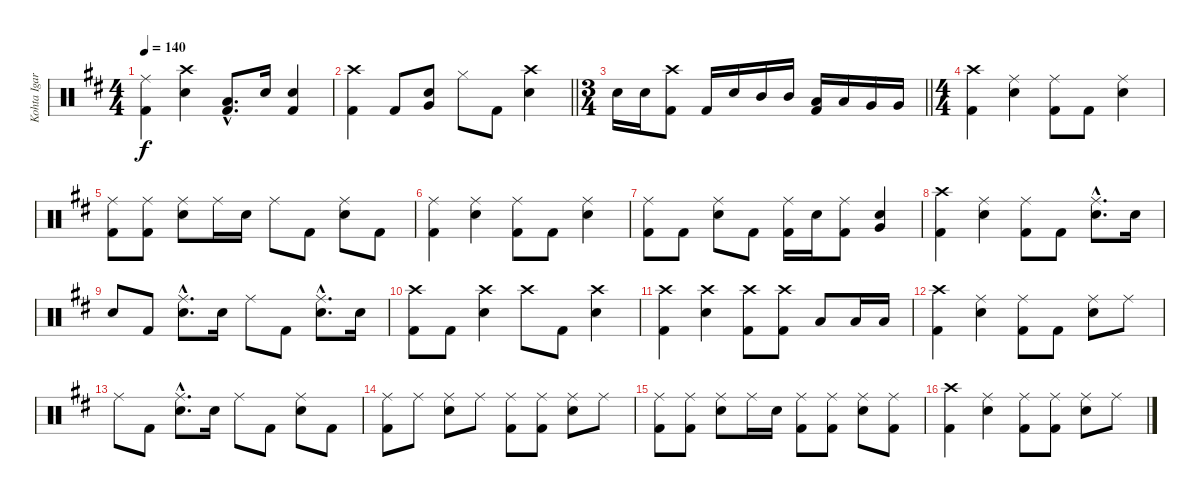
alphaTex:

\track ("Kohta Igarashi" "Kohta Igar") {instrument percussion}
\staff {score}
\articulation defaults
\ts (4 4)
\tempo 140
\clef neutral
\ks d
("Ride (middle)" "Kick (hit) 2").4{dy f} ("Crash high (hit)" "Electric Snare (hit)").4 ("Low Tom (hit)"{hac} "Kick (hit) 2"{hac}).8{d} "Electric Snare (hit)".16 ("Electric Snare (hit)" "Kick (hit) 2").4 |
\barLineRight lightlight
("Crash high (hit)" "Kick (hit) 2").4 "Kick (hit) 2".8 ("Electric Snare (hit)" "Very Low Tom (hit)").8 "Hi-Hat (closed)".8 "Kick (hit) 2".8 ("Crash high (hit)" "Electric Snare (hit)").4 |
\ts (3 4)
\barLineRight lightlight "Electric Snare (hit)".16 "Electric Snare (hit)".16
("Crash high (hit)" "Kick (hit) 2").8 "Kick (hit) 2".16 "Electric Snare (hit)".16 "Mid Tom (hit)".16 "Mid Tom (hit)".16 ("Low Tom (hit)" "Kick (hit) 2").16 "Low Tom (hit)".16 "Very Low Tom (hit)".16 "Very Low Tom (hit)".16 |
\ts (4 4)
("Crash high (hit)" "Kick (hit) 2").4 ("Ride (middle)" "Electric Snare (hit)").4 ("Ride (middle)" "Kick (hit) 2").8 "Kick (hit) 2".8 ("Ride (middle)" "Electric Snare (hit)").4 |
("Ride (middle)" "Kick (hit) 2").8 ("Ride (middle)" "Kick (hit) 2").8 ("Ride (middle)" "Electric Snare (hit)").8 "Ride (middle)".16 "Electric Snare (hit)".16 "Ride (middle)".8 "Kick (hit) 2".8 ("Ride (middle)" "Electric Snare (hit)").8 "Kick (hit) 2".8 |
("Ride (middle)" "Kick (hit) 2").4 ("Ride (middle)" "Electric Snare (hit)").4 ("Ride (middle)" "Kick (hit) 2").8 "Kick (hit) 2".8 ("Ride (middle)" "Electric Snare (hit)").4 |
("Ride (middle)" "Kick (hit) 2").8 "Kick (hit) 2".8 ("Ride (middle)" "Electric Snare (hit)").8 "Kick (hit) 2".8 ("Ride (middle)" "Kick (hit) 2").16 "Electric Snare (hit)".16 ("Ride (middle)" "Kick (hit) 2").8 ("Electric Snare (hit)" "Very Low Tom (hit)").4 |
("Crash high (hit)" "Kick (hit) 2").4 ("Ride (middle)" "Electric Snare (hit)").4 ("Ride (middle)" "Kick (hit) 2").8 "Kick (hit) 2".8 ("Ride (middle)"{hac} "Electric Snare (hit)"{hac}).8{d} "Electric Snare (hit)".16 |
"Electric Snare (hit)".8 "Kick (hit) 2".8 ("Ride (middle)"{hac} "Electric Snare (hit)"{hac}).8{d} "Electric Snare (hit)".16 "Ride (middle)".8 "Kick (hit) 2".8 ("Ride (middle)"{hac} "Electric Snare (hit)"{hac}).8{d} "Electric Snare (hit)".16 |
("Crash high (hit)" "Kick (hit) 2").8 "Kick (hit) 2".8 ("Crash high (hit)" "Electric Snare (hit)").4 "Crash high (hit)".8 "Kick (hit) 2".8 ("Crash high (hit)" "Electric Snare (hit)").4 |
("Crash high (hit)" "Kick (hit) 2").4 ("Crash high (hit)" "Electric Snare (hit)").4 ("Crash high (hit)" "Kick (hit) 2").8 ("Crash high (hit)" "Kick (hit) 2").8 "Low Floor Tom (hit)".8 "Low Floor Tom (hit)".16 "Low Floor Tom (hit)".16 |
("Crash high (hit)" "Kick (hit) 2").4 ("Ride (middle)" "Electric Snare (hit)").4 ("Ride (middle)" "Kick (hit) 2").8 "Kick (hit) 2".8 ("Ride (middle)" "Electric Snare (hit)").8 "Ride (middle)".8 |
"Ride (middle)".8 "Kick (hit) 2".8 ("Ride (middle)"{hac} "Electric Snare (hit)"{hac}).8{d} "Electric Snare (hit)".16 "Ride (middle)".8 "Kick (hit) 2".8 ("Ride (middle)" "Electric Snare (hit)").8 "Kick (hit) 2".8 |
("Ride (middle)" "Kick (hit) 2").8 "Ride (middle)".8 ("Ride (middle)" "Electric Snare (hit)").8 "Ride (middle)".8 ("Ride (middle)" "Kick (hit) 2").8 ("Ride (middle)" "Kick (hit) 2").8 ("Ride (middle)" "Electric Snare (hit)").8 "Ride (middle)".8 |
("Ride (middle)" "Kick (hit) 2").8 ("Ride (middle)" "Kick (hit) 2").8 ("Ride (middle)" "Electric Snare (hit)").8 "Ride (middle)".16 "Electric Snare (hit)".16 ("Ride (middle)" "Kick (hit) 2").8 ("Ride (middle)" "Kick (hit) 2").8 ("Ride (middle)" "Electric Snare (hit)").8 ("Ride (middle)" "Kick (hit) 2").8 |
("Crash high (hit)" "Kick (hit) 2").4 ("Ride (middle)" "Electric Snare (hit)").4 ("Ride (middle)" "Kick (hit) 2").8 ("Ride (middle)" "Kick (hit) 2").8 ("Ride (middle)" "Electric Snare (hit)").8 "Ride (middle)".8
